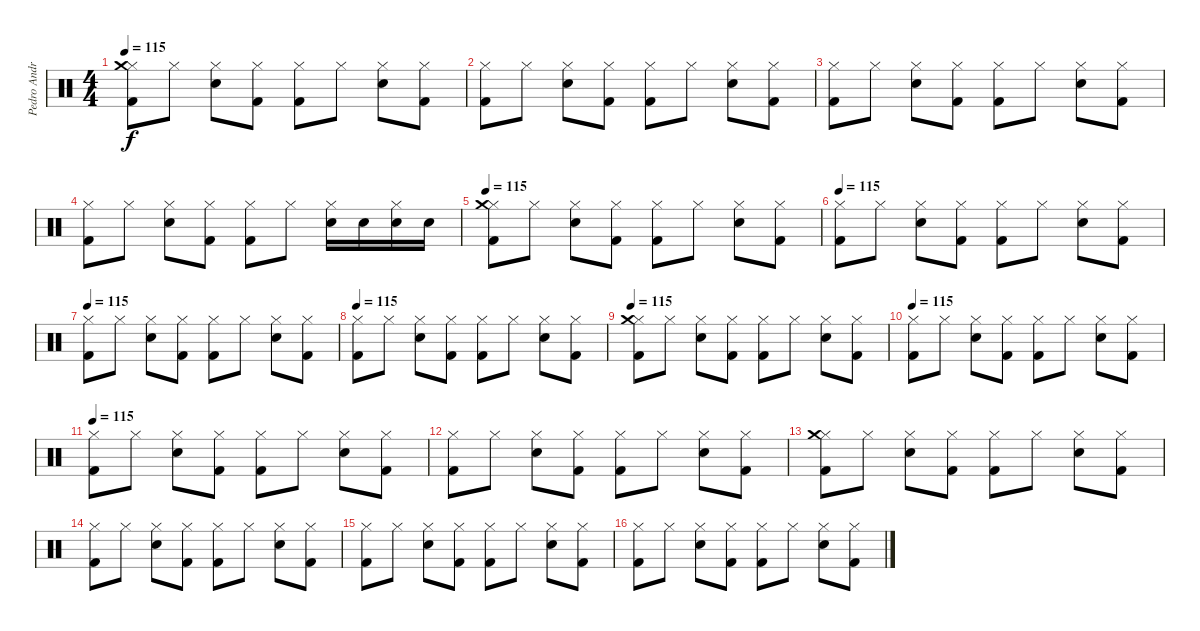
\track ("Pedro Andreu" "Pedro Andr") {instrument percussion}
\staff {score}
\articulation defaults
\ts (4 4)
\tempo 115
\clef neutral
\ks c
("Hi-Hat (closed)" "Crash medium (hit)" "Kick (hit) 2").8{dy f} "Hi-Hat (closed)".8 ("Hi-Hat (closed)" "Snare (hit) 2").8 ("Hi-Hat (closed)" "Kick (hit) 2").8 ("Hi-Hat (closed)" "Kick (hit) 2").8 "Hi-Hat (closed)".8 ("Hi-Hat (closed)" "Snare (hit) 2").8 ("Hi-Hat (closed)" "Kick (hit) 2").8 |
("Hi-Hat (closed)" "Kick (hit) 2").8 "Hi-Hat (closed)".8 ("Hi-Hat (closed)" "Snare (hit) 2").8 ("Hi-Hat (closed)" "Kick (hit) 2").8 ("Hi-Hat (closed)" "Kick (hit) 2").8 "Hi-Hat (closed)".8 ("Hi-Hat (closed)" "Snare (hit) 2").8 ("Hi-Hat (closed)" "Kick (hit) 2").8 |
("Hi-Hat (closed)" "Kick (hit) 2").8 "Hi-Hat (closed)".8 ("Hi-Hat (closed)" "Snare (hit) 2").8 ("Hi-Hat (closed)" "Kick (hit) 2").8 ("Hi-Hat (closed)" "Kick (hit) 2").8 "Hi-Hat (closed)".8 ("Hi-Hat (closed)" "Snare (hit) 2").8 ("Hi-Hat (closed)" "Kick (hit) 2").8 |
("Hi-Hat (closed)" "Kick (hit) 2").8 "Hi-Hat (closed)".8 ("Hi-Hat (closed)" "Snare (hit) 2").8 ("Hi-Hat (closed)" "Kick (hit) 2").8 ("Hi-Hat (closed)" "Kick (hit) 2").8 "Hi-Hat (closed)".8 ("Snare (hit) 2" "Hi-Hat (closed)").16 "Snare (hit) 2".16 ("Snare (hit) 2" "Hi-Hat (closed)").16 "Snare (hit) 2".16 |
\tempo 115
("Hi-Hat (closed)" "Crash medium (hit)" "Kick (hit) 2").8 "Hi-Hat (closed)".8 ("Hi-Hat (closed)" "Snare (hit) 2").8 ("Hi-Hat (closed)" "Kick (hit) 2").8 ("Hi-Hat (closed)" "Kick (hit) 2").8 "Hi-Hat (closed)".8 ("Hi-Hat (closed)" "Snare (hit) 2").8 ("Hi-Hat (closed)" "Kick (hit) 2").8 |
\tempo 115
("Hi-Hat (closed)" "Kick (hit) 2").8 "Hi-Hat (closed)".8 ("Hi-Hat (closed)" "Snare (hit) 2").8 ("Hi-Hat (closed)" "Kick (hit) 2").8 ("Hi-Hat (closed)" "Kick (hit) 2").8 "Hi-Hat (closed)".8 ("Hi-Hat (closed)" "Snare (hit) 2").8 ("Hi-Hat (closed)" "Kick (hit) 2").8 |
\tempo 115
("Hi-Hat (closed)" "Kick (hit) 2").8 "Hi-Hat (closed)".8 ("Hi-Hat (closed)" "Snare (hit) 2").8 ("Hi-Hat (closed)" "Kick (hit) 2").8 ("Hi-Hat (closed)" "Kick (hit) 2").8 "Hi-Hat (closed)".8 ("Hi-Hat (closed)" "Snare (hit) 2").8 ("Hi-Hat (closed)" "Kick (hit) 2").8 |
\tempo 115
("Hi-Hat (closed)" "Kick (hit) 2").8 "Hi-Hat (closed)".8 ("Hi-Hat (closed)" "Snare (hit) 2").8 ("Hi-Hat (closed)" "Kick (hit) 2").8 ("Hi-Hat (closed)" "Kick (hit) 2").8 "Hi-Hat (closed)".8 ("Hi-Hat (closed)" "Snare (hit) 2").8 ("Hi-Hat (closed)" "Kick (hit) 2").8 |
\tempo 115
("Hi-Hat (closed)" "Crash medium (hit)" "Kick (hit) 2").8 "Hi-Hat (closed)".8 ("Hi-Hat (closed)" "Snare (hit) 2").8 ("Hi-Hat (closed)" "Kick (hit) 2").8 ("Hi-Hat (closed)" "Kick (hit) 2").8 "Hi-Hat (closed)".8 ("Hi-Hat (closed)" "Snare (hit) 2").8 ("Hi-Hat (closed)" "Kick (hit) 2").8 |
\tempo 115
("Hi-Hat (closed)" "Kick (hit) 2").8 "Hi-Hat (closed)".8 ("Hi-Hat (closed)" "Snare (hit) 2").8 ("Hi-Hat (closed)" "Kick (hit) 2").8 ("Hi-Hat (closed)" "Kick (hit) 2").8 "Hi-Hat (closed)".8 ("Hi-Hat (closed)" "Snare (hit) 2").8 ("Hi-Hat (closed)" "Kick (hit) 2").8 |
\tempo 115
("Hi-Hat (closed)" "Kick (hit) 2").8 "Hi-Hat (closed)".8 ("Hi-Hat (closed)" "Snare (hit) 2").8 ("Hi-Hat (closed)" "Kick (hit) 2").8 ("Hi-Hat (closed)" "Kick (hit) 2").8 "Hi-Hat (closed)".8 ("Hi-Hat (closed)" "Snare (hit) 2").8 ("Hi-Hat (closed)" "Kick (hit) 2").8 |
("Hi-Hat (closed)" "Kick (hit) 2").8 "Hi-Hat (closed)".8 ("Hi-Hat (closed)" "Snare (hit) 2").8 ("Hi-Hat (closed)" "Kick (hit) 2").8 ("Hi-Hat (closed)" "Kick (hit) 2").8 "Hi-Hat (closed)".8 ("Hi-Hat (closed)" "Snare (hit) 2").8 ("Hi-Hat (closed)" "Kick (hit) 2").8 |
("Hi-Hat (closed)" "Crash medium (hit)" "Kick (hit) 2").8 "Hi-Hat (closed)".8 ("Hi-Hat (closed)" "Snare (hit) 2").8 ("Hi-Hat (closed)" "Kick (hit) 2").8 ("Hi-Hat (closed)" "Kick (hit) 2").8 "Hi-Hat (closed)".8 ("Hi-Hat (closed)" "Snare (hit) 2").8 ("Hi-Hat (closed)" "Kick (hit) 2").8 |
("Hi-Hat (closed)" "Kick (hit) 2").8 "Hi-Hat (closed)".8 ("Hi-Hat (closed)" "Snare (hit) 2").8 ("Hi-Hat (closed)" "Kick (hit) 2").8 ("Hi-Hat (closed)" "Kick (hit) 2").8 "Hi-Hat (closed)".8 ("Hi-Hat (closed)" "Snare (hit) 2").8 ("Hi-Hat (closed)" "Kick (hit) 2").8 |
("Hi-Hat (closed)" "Kick (hit) 2").8 "Hi-Hat (closed)".8 ("Hi-Hat (closed)" "Snare (hit) 2").8 ("Hi-Hat (closed)" "Kick (hit) 2").8 ("Hi-Hat (closed)" "Kick (hit) 2").8 "Hi-Hat (closed)".8 ("Hi-Hat (closed)" "Snare (hit) 2").8 ("Hi-Hat (closed)" "Kick (hit) 2").8 |
("Hi-Hat (closed)" "Kick (hit) 2").8 "Hi-Hat (closed)".8 ("Hi-Hat (closed)" "Snare (hit) 2").8 ("Hi-Hat (closed)" "Kick (hit) 2").8 ("Hi-Hat (closed)" "Kick (hit) 2").8 "Hi-Hat (closed)".8 ("Hi-Hat (closed)" "Snare (hit) 2").8 ("Hi-Hat (closed)" "Kick (hit) 2").8
